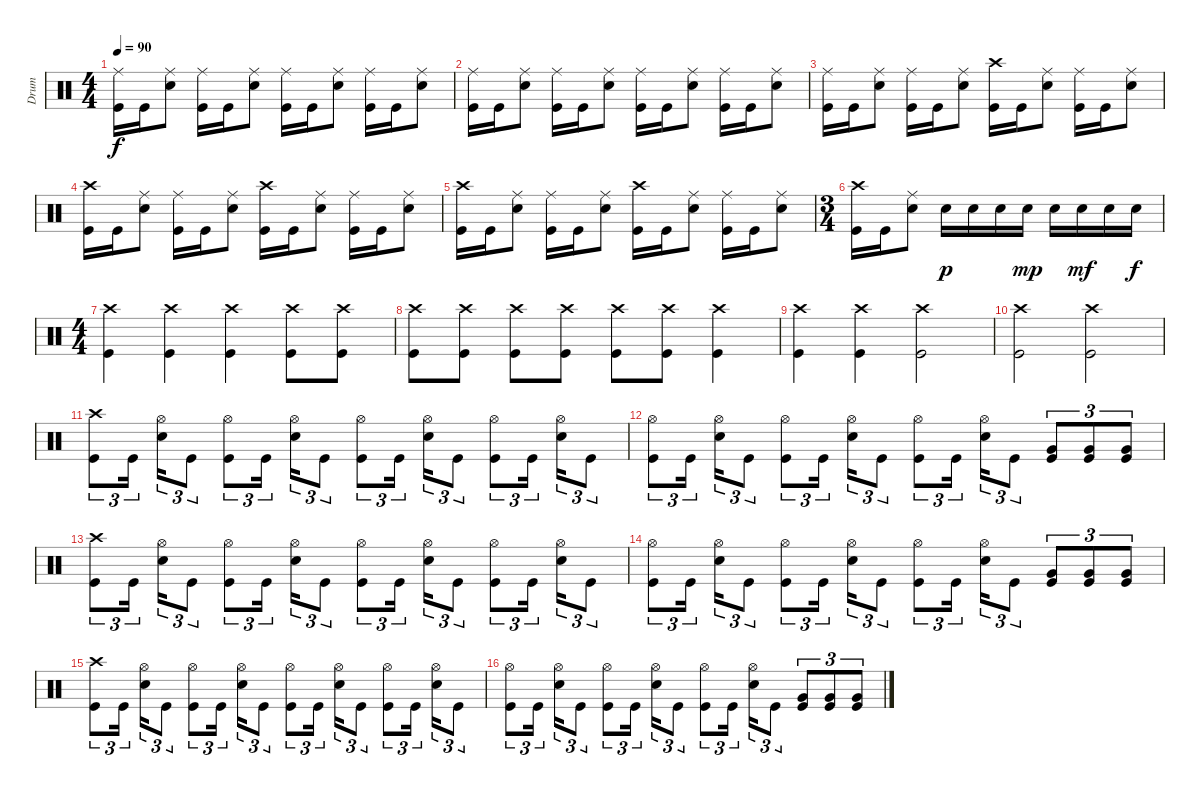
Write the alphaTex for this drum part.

\track ("Drum" "Drum") {instrument percussion}
\staff {score}
\articulation defaults
\ts (4 4)
\tempo 90
\clef neutral
\ks c
("Ride (middle)" "Kick (hit)").16{dy f} "Kick (hit)".16 ("Ride (middle)" "Electric Snare (hit)").8 ("Ride (middle)" "Kick (hit)").16 "Kick (hit)".16 ("Ride (middle)" "Electric Snare (hit)").8 ("Ride (middle)" "Kick (hit)").16 "Kick (hit)".16 ("Ride (middle)" "Electric Snare (hit)").8 ("Ride (middle)" "Kick (hit)").16 "Kick (hit)".16 ("Ride (middle)" "Electric Snare (hit)").8 |
("Ride (middle)" "Kick (hit)").16 "Kick (hit)".16 ("Ride (middle)" "Electric Snare (hit)").8 ("Ride (middle)" "Kick (hit)").16 "Kick (hit)".16 ("Ride (middle)" "Electric Snare (hit)").8 ("Ride (middle)" "Kick (hit)").16 "Kick (hit)".16 ("Ride (middle)" "Electric Snare (hit)").8 ("Ride (middle)" "Kick (hit)").16 "Kick (hit)".16 ("Ride (middle)" "Electric Snare (hit)").8 |
("Ride (middle)" "Kick (hit)").16 "Kick (hit)".16 ("Ride (middle)" "Electric Snare (hit)").8 ("Ride (middle)" "Kick (hit)").16 "Kick (hit)".16 ("Ride (middle)" "Electric Snare (hit)").8 ("Crash high (hit)" "Kick (hit)").16 "Kick (hit)".16 ("Ride (middle)" "Electric Snare (hit)").8 ("Ride (middle)" "Kick (hit)").16 "Kick (hit)".16 ("Ride (middle)" "Electric Snare (hit)").8 |
("Crash high (hit)" "Kick (hit)").16 "Kick (hit)".16 ("Ride (middle)" "Electric Snare (hit)").8 ("Ride (middle)" "Kick (hit)").16 "Kick (hit)".16 ("Ride (middle)" "Electric Snare (hit)").8 ("Crash high (hit)" "Kick (hit)").16 "Kick (hit)".16 ("Ride (middle)" "Electric Snare (hit)").8 ("Ride (middle)" "Kick (hit)").16 "Kick (hit)".16 ("Ride (middle)" "Electric Snare (hit)").8 |
("Crash high (hit)" "Kick (hit)").16 "Kick (hit)".16 ("Ride (middle)" "Electric Snare (hit)").8 ("Ride (middle)" "Kick (hit)").16 "Kick (hit)".16 ("Ride (middle)" "Electric Snare (hit)").8 ("Crash high (hit)" "Kick (hit)").16 "Kick (hit)".16 ("Ride (middle)" "Electric Snare (hit)").8 ("Ride (middle)" "Kick (hit)").16 "Kick (hit)".16 ("Ride (middle)" "Electric Snare (hit)").8 |
\ts (3 4)
("Crash high (hit)" "Kick (hit)").16 "Kick (hit)".16 ("Ride (middle)" "Electric Snare (hit)").8 "Electric Snare (hit)".16{dy p} "Electric Snare (hit)".16 "Electric Snare (hit)".16 "Electric Snare (hit)".16{dy mp} "Electric Snare (hit)".16 "Electric Snare (hit)".16{dy mf} "Electric Snare (hit)".16 "Electric Snare (hit)".16{dy f} |
\ts (4 4)
("Crash high (hit)" "Kick (hit)").4 ("Crash high (hit)" "Kick (hit)").4 ("Crash high (hit)" "Kick (hit)").4 ("Crash high (hit)" "Kick (hit)").8 ("Crash high (hit)" "Kick (hit)").8 |
("Crash high (hit)" "Kick (hit)").8 ("Crash high (hit)" "Kick (hit)").8 ("Crash high (hit)" "Kick (hit)").8 ("Crash high (hit)" "Kick (hit)").8 ("Crash high (hit)" "Kick (hit)").8 ("Crash high (hit)" "Kick (hit)").8 ("Crash high (hit)" "Kick (hit)").4 |
("Crash high (hit)" "Kick (hit)").4 ("Crash high (hit)" "Kick (hit)").4 ("Crash high (hit)" "Kick (hit)").2 |
("Crash high (hit)" "Kick (hit)").2 ("Crash high (hit)" "Kick (hit)").2 |
("Crash high (hit)" "Kick (hit)").8{tu (3 2)} "Kick (hit)".16{tu (3 2) beam splitsecondary} ("Hi-Hat (open)" "Electric Snare (hit)").16{tu (3 2)} "Kick (hit)".8{tu (3 2)} ("Hi-Hat (open)" "Kick (hit)").8{tu (3 2)} "Kick (hit)".16{tu (3 2) beam splitsecondary} ("Hi-Hat (open)" "Electric Snare (hit)").16{tu (3 2)} "Kick (hit)".8{tu (3 2)} ("Hi-Hat (open)" "Kick (hit)").8{tu (3 2)} "Kick (hit)".16{tu (3 2) beam splitsecondary} ("Hi-Hat (open)" "Electric Snare (hit)").16{tu (3 2)} "Kick (hit)".8{tu (3 2)} ("Hi-Hat (open)" "Kick (hit)").8{tu (3 2)} "Kick (hit)".16{tu (3 2) beam splitsecondary} ("Hi-Hat (open)" "Electric Snare (hit)").16{tu (3 2)} "Kick (hit)".8{tu (3 2)} |
("Hi-Hat (open)" "Kick (hit)").8{tu (3 2)} "Kick (hit)".16{tu (3 2) beam splitsecondary} ("Hi-Hat (open)" "Electric Snare (hit)").16{tu (3 2)} "Kick (hit)".8{tu (3 2)} ("Hi-Hat (open)" "Kick (hit)").8{tu (3 2)} "Kick (hit)".16{tu (3 2) beam splitsecondary} ("Hi-Hat (open)" "Electric Snare (hit)").16{tu (3 2)} "Kick (hit)".8{tu (3 2)} ("Hi-Hat (open)" "Kick (hit)").8{tu (3 2)} "Kick (hit)".16{tu (3 2) beam splitsecondary} ("Hi-Hat (open)" "Electric Snare (hit)").16{tu (3 2)} "Kick (hit)".8{tu (3 2)} ("Very Low Tom (hit)" "Kick (hit)").8{tu (3 2)} ("Very Low Tom (hit)" "Kick (hit)").8{tu (3 2)} ("Very Low Tom (hit)" "Kick (hit)").8{tu (3 2)} |
("Crash high (hit)" "Kick (hit)").8{tu (3 2)} "Kick (hit)".16{tu (3 2) beam splitsecondary} ("Hi-Hat (open)" "Electric Snare (hit)").16{tu (3 2)} "Kick (hit)".8{tu (3 2)} ("Hi-Hat (open)" "Kick (hit)").8{tu (3 2)} "Kick (hit)".16{tu (3 2) beam splitsecondary} ("Hi-Hat (open)" "Electric Snare (hit)").16{tu (3 2)} "Kick (hit)".8{tu (3 2)} ("Hi-Hat (open)" "Kick (hit)").8{tu (3 2)} "Kick (hit)".16{tu (3 2) beam splitsecondary} ("Hi-Hat (open)" "Electric Snare (hit)").16{tu (3 2)} "Kick (hit)".8{tu (3 2)} ("Hi-Hat (open)" "Kick (hit)").8{tu (3 2)} "Kick (hit)".16{tu (3 2) beam splitsecondary} ("Hi-Hat (open)" "Electric Snare (hit)").16{tu (3 2)} "Kick (hit)".8{tu (3 2)} |
("Hi-Hat (open)" "Kick (hit)").8{tu (3 2)} "Kick (hit)".16{tu (3 2) beam splitsecondary} ("Hi-Hat (open)" "Electric Snare (hit)").16{tu (3 2)} "Kick (hit)".8{tu (3 2)} ("Hi-Hat (open)" "Kick (hit)").8{tu (3 2)} "Kick (hit)".16{tu (3 2) beam splitsecondary} ("Hi-Hat (open)" "Electric Snare (hit)").16{tu (3 2)} "Kick (hit)".8{tu (3 2)} ("Hi-Hat (open)" "Kick (hit)").8{tu (3 2)} "Kick (hit)".16{tu (3 2) beam splitsecondary} ("Hi-Hat (open)" "Electric Snare (hit)").16{tu (3 2)} "Kick (hit)".8{tu (3 2)} ("Very Low Tom (hit)" "Kick (hit)").8{tu (3 2)} ("Very Low Tom (hit)" "Kick (hit)").8{tu (3 2)} ("Very Low Tom (hit)" "Kick (hit)").8{tu (3 2)} |
("Crash high (hit)" "Kick (hit)").8{tu (3 2)} "Kick (hit)".16{tu (3 2) beam splitsecondary} ("Hi-Hat (open)" "Electric Snare (hit)").16{tu (3 2)} "Kick (hit)".8{tu (3 2)} ("Hi-Hat (open)" "Kick (hit)").8{tu (3 2)} "Kick (hit)".16{tu (3 2) beam splitsecondary} ("Hi-Hat (open)" "Electric Snare (hit)").16{tu (3 2)} "Kick (hit)".8{tu (3 2)} ("Hi-Hat (open)" "Kick (hit)").8{tu (3 2)} "Kick (hit)".16{tu (3 2) beam splitsecondary} ("Hi-Hat (open)" "Electric Snare (hit)").16{tu (3 2)} "Kick (hit)".8{tu (3 2)} ("Hi-Hat (open)" "Kick (hit)").8{tu (3 2)} "Kick (hit)".16{tu (3 2) beam splitsecondary} ("Hi-Hat (open)" "Electric Snare (hit)").16{tu (3 2)} "Kick (hit)".8{tu (3 2)} |
("Hi-Hat (open)" "Kick (hit)").8{tu (3 2)} "Kick (hit)".16{tu (3 2) beam splitsecondary} ("Hi-Hat (open)" "Electric Snare (hit)").16{tu (3 2)} "Kick (hit)".8{tu (3 2)} ("Hi-Hat (open)" "Kick (hit)").8{tu (3 2)} "Kick (hit)".16{tu (3 2) beam splitsecondary} ("Hi-Hat (open)" "Electric Snare (hit)").16{tu (3 2)} "Kick (hit)".8{tu (3 2)} ("Hi-Hat (open)" "Kick (hit)").8{tu (3 2)} "Kick (hit)".16{tu (3 2) beam splitsecondary} ("Hi-Hat (open)" "Electric Snare (hit)").16{tu (3 2)} "Kick (hit)".8{tu (3 2)} ("Very Low Tom (hit)" "Kick (hit)").8{tu (3 2)} ("Very Low Tom (hit)" "Kick (hit)").8{tu (3 2)} ("Very Low Tom (hit)" "Kick (hit)").8{tu (3 2)}
